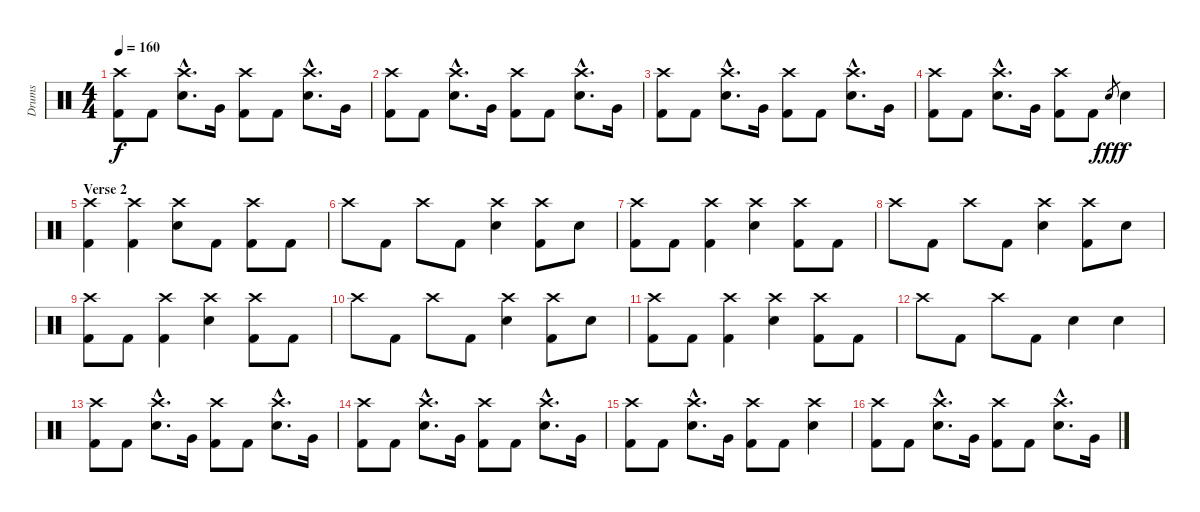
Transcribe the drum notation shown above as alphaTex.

\track ("Drums" "Drums") {instrument percussion}
\staff {score}
\articulation defaults
\ts (4 4)
\tempo 160
\clef neutral
\ks c
("Crash high (hit)" "Kick (hit) 2").8{dy f} "Kick (hit) 2".8 ("Crash high (hit)"{hac} "Electric Snare (hit)"{hac}).8{d} "Very Low Tom (hit)".16 ("Crash high (hit)" "Kick (hit) 2").8 "Kick (hit) 2".8 ("Crash high (hit)"{hac} "Electric Snare (hit)"{hac}).8{d} "Very Low Tom (hit)".16 |
("Crash high (hit)" "Kick (hit) 2").8 "Kick (hit) 2".8 ("Crash high (hit)"{hac} "Electric Snare (hit)"{hac}).8{d} "Very Low Tom (hit)".16 ("Crash high (hit)" "Kick (hit) 2").8 "Kick (hit) 2".8 ("Crash high (hit)"{hac} "Electric Snare (hit)"{hac}).8{d} "Very Low Tom (hit)".16 |
("Crash high (hit)" "Kick (hit) 2").8 "Kick (hit) 2".8 ("Crash high (hit)"{hac} "Electric Snare (hit)"{hac}).8{d} "Very Low Tom (hit)".16 ("Crash high (hit)" "Kick (hit) 2").8 "Kick (hit) 2".8 ("Crash high (hit)"{hac} "Electric Snare (hit)"{hac}).8{d} "Very Low Tom (hit)".16 |
("Crash high (hit)" "Kick (hit) 2").8 "Kick (hit) 2".8 ("Crash high (hit)"{hac} "Electric Snare (hit)"{hac}).8{d} "Very Low Tom (hit)".16 ("Crash high (hit)" "Kick (hit) 2").8 "Kick (hit) 2".8 "Electric Snare (hit)".8{gr dy fff} "Electric Snare (hit)".4{dy f} |
\section ("" "Verse 2")
("Crash high (hit)" "Kick (hit) 2").4 ("Crash high (hit)" "Kick (hit) 2").4 ("Crash high (hit)" "Electric Snare (hit)").8 "Kick (hit) 2".8 ("Crash high (hit)" "Kick (hit) 2").8 "Kick (hit) 2".8 |
"Crash high (hit)".8 "Kick (hit) 2".8 "Crash high (hit)".8 "Kick (hit) 2".8 ("Crash high (hit)" "Electric Snare (hit)").4 ("Crash high (hit)" "Kick (hit) 2").8 "Electric Snare (hit)".8 |
("Crash high (hit)" "Kick (hit) 2").8 "Kick (hit) 2".8 ("Crash high (hit)" "Kick (hit) 2").4 ("Crash high (hit)" "Electric Snare (hit)").4 ("Crash high (hit)" "Kick (hit) 2").8 "Kick (hit) 2".8 |
"Crash high (hit)".8 "Kick (hit) 2".8 "Crash high (hit)".8 "Kick (hit) 2".8 ("Crash high (hit)" "Electric Snare (hit)").4 ("Crash high (hit)" "Kick (hit) 2").8 "Electric Snare (hit)".8 |
("Crash high (hit)" "Kick (hit) 2").8 "Kick (hit) 2".8 ("Crash high (hit)" "Kick (hit) 2").4 ("Crash high (hit)" "Electric Snare (hit)").4 ("Crash high (hit)" "Kick (hit) 2").8 "Kick (hit) 2".8 |
"Crash high (hit)".8 "Kick (hit) 2".8 "Crash high (hit)".8 "Kick (hit) 2".8 ("Crash high (hit)" "Electric Snare (hit)").4 ("Crash high (hit)" "Kick (hit) 2").8 "Electric Snare (hit)".8 |
("Crash high (hit)" "Kick (hit) 2").8 "Kick (hit) 2".8 ("Crash high (hit)" "Kick (hit) 2").4 ("Crash high (hit)" "Electric Snare (hit)").4 ("Crash high (hit)" "Kick (hit) 2").8 "Kick (hit) 2".8 |
"Crash high (hit)".8 "Kick (hit) 2".8 "Crash high (hit)".8 "Kick (hit) 2".8 "Electric Snare (hit)".4 "Electric Snare (hit)".4 |
("Crash high (hit)" "Kick (hit) 2").8 "Kick (hit) 2".8 ("Crash high (hit)"{hac} "Electric Snare (hit)"{hac}).8{d} "Very Low Tom (hit)".16 ("Crash high (hit)" "Kick (hit) 2").8 "Kick (hit) 2".8 ("Crash high (hit)"{hac} "Electric Snare (hit)"{hac}).8{d} "Very Low Tom (hit)".16 |
("Crash high (hit)" "Kick (hit) 2").8 "Kick (hit) 2".8 ("Crash high (hit)"{hac} "Electric Snare (hit)"{hac}).8{d} "Very Low Tom (hit)".16 ("Crash high (hit)" "Kick (hit) 2").8 "Kick (hit) 2".8 ("Crash high (hit)"{hac} "Electric Snare (hit)"{hac}).8{d} "Very Low Tom (hit)".16 |
("Crash high (hit)" "Kick (hit) 2").8 "Kick (hit) 2".8 ("Crash high (hit)"{hac} "Electric Snare (hit)"{hac}).8{d} "Very Low Tom (hit)".16 ("Crash high (hit)" "Kick (hit) 2").8 "Kick (hit) 2".8 ("Crash high (hit)" "Electric Snare (hit)").4 |
("Crash high (hit)" "Kick (hit) 2").8 "Kick (hit) 2".8 ("Crash high (hit)"{hac} "Electric Snare (hit)"{hac}).8{d} "Very Low Tom (hit)".16 ("Crash high (hit)" "Kick (hit) 2").8 "Kick (hit) 2".8 ("Crash high (hit)"{hac} "Electric Snare (hit)"{hac}).8{d} "Very Low Tom (hit)".16
